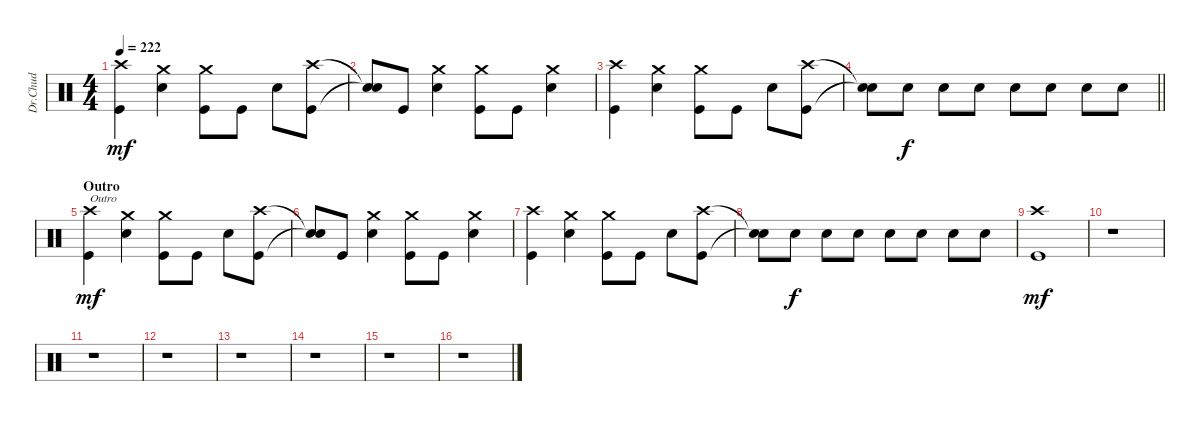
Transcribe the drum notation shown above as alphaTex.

\track ("Dr.Chud" "Dr.Chud") {instrument percussion}
\staff {score}
\articulation defaults
\ts (4 4)
\tempo 222
\clef neutral
\ks c
("Crash high (hit)" "Kick (hit)").4{dy mf} ("Crash medium (hit)" "Electric Snare (hit)").4 ("Crash medium (hit)" "Kick (hit)").8 "Kick (hit)".8 "Electric Snare (hit)".8 ("Crash high (hit)" "Kick (hit)").8 |
("Snare (hit)"{t} "Snare (hit)"{t}).8 "Kick (hit)".8 ("Crash medium (hit)" "Electric Snare (hit)").4 ("Crash medium (hit)" "Kick (hit)").8 "Kick (hit)".8 ("Crash medium (hit)" "Electric Snare (hit)").4 |
("Crash high (hit)" "Kick (hit)").4 ("Crash medium (hit)" "Electric Snare (hit)").4 ("Crash medium (hit)" "Kick (hit)").8 "Kick (hit)".8 "Electric Snare (hit)".8 ("Crash high (hit)" "Kick (hit)").8 |
\barLineRight lightlight
("Snare (hit)"{t} "Snare (hit)"{t}).8 "Electric Snare (hit)".8{dy f} "Electric Snare (hit)".8 "Electric Snare (hit)".8 "Electric Snare (hit)".8 "Electric Snare (hit)".8 "Electric Snare (hit)".8 "Electric Snare (hit)".8 |
\section ("" "Outro")
("Crash high (hit)" "Kick (hit)").4{txt "Outro" dy mf} ("Crash medium (hit)" "Electric Snare (hit)").4 ("Crash medium (hit)" "Kick (hit)").8 "Kick (hit)".8 "Electric Snare (hit)".8 ("Crash high (hit)" "Kick (hit)").8 |
("Snare (hit)"{t} "Snare (hit)"{t}).8 "Kick (hit)".8 ("Crash medium (hit)" "Electric Snare (hit)").4 ("Crash medium (hit)" "Kick (hit)").8 "Kick (hit)".8 ("Crash medium (hit)" "Electric Snare (hit)").4 |
("Crash high (hit)" "Kick (hit)").4 ("Crash medium (hit)" "Electric Snare (hit)").4 ("Crash medium (hit)" "Kick (hit)").8 "Kick (hit)".8 "Electric Snare (hit)".8 ("Crash high (hit)" "Kick (hit)").8 |
("Snare (hit)"{t} "Snare (hit)"{t}).8 "Electric Snare (hit)".8{dy f} "Electric Snare (hit)".8 "Electric Snare (hit)".8 "Electric Snare (hit)".8 "Electric Snare (hit)".8 "Electric Snare (hit)".8 "Electric Snare (hit)".8 |
("Crash high (hit)" "Kick (hit)").1{dy mf} |
r.1 |
r.1 |
r.1 |
r.1 |
r.1 |
r.1 |
r.1
